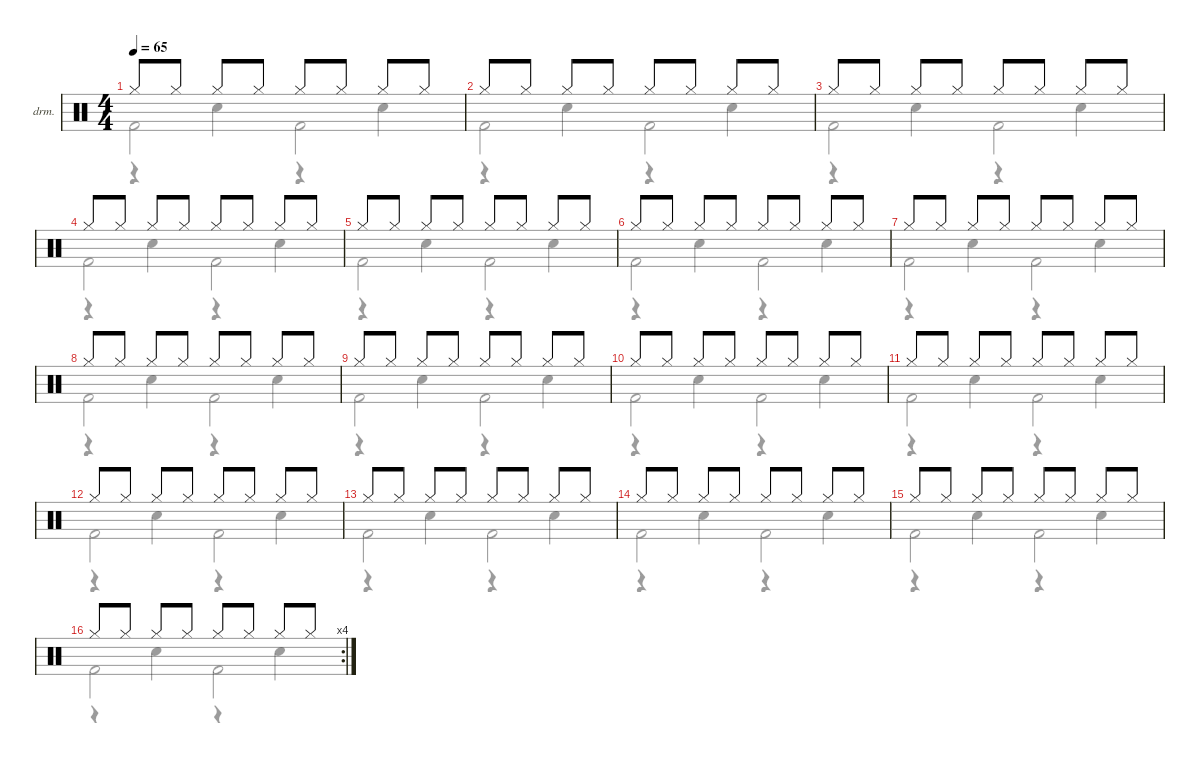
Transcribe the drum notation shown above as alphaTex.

\defaultSystemsLayout 4
\hideDynamics
\bracketExtendMode nobrackets
\firstSystemTrackNameOrientation horizontal
\otherSystemsTrackNameOrientation horizontal
\track ("Drumkit" "drm.") {defaultSystemsLayout 4 instrument percussion}
\staff {score}
\articulation defaults
\voice
\ts (4 4)
\tempo 65
\clef neutral
\scale
1.06363
\ks c "Hi-Hat (closed)".8{dy ff beam Up} "Hi-Hat (closed)".8{beam Up} "Hi-Hat (closed)".8{beam Up} "Hi-Hat (closed)".8{beam Up} "Hi-Hat (closed)".8{beam Up} "Hi-Hat (closed)".8{beam Up} "Hi-Hat (closed)".8{beam Up} "Hi-Hat (closed)".8{beam Up}
|
\scale
0.97879 "Hi-Hat (closed)".8{beam Up} "Hi-Hat (closed)".8{beam Up} "Hi-Hat (closed)".8{beam Up} "Hi-Hat (closed)".8{beam Up} "Hi-Hat (closed)".8{beam Up} "Hi-Hat (closed)".8{beam Up} "Hi-Hat (closed)".8{beam Up} "Hi-Hat (closed)".8{beam Up} |
\scale
0.97879 "Hi-Hat (closed)".8{beam Up} "Hi-Hat (closed)".8{beam Up} "Hi-Hat (closed)".8{beam Up} "Hi-Hat (closed)".8{beam Up} "Hi-Hat (closed)".8{beam Up} "Hi-Hat (closed)".8{beam Up} "Hi-Hat (closed)".8{beam Up} "Hi-Hat (closed)".8{beam Up} |
\scale
0.97879 "Hi-Hat (closed)".8{beam Up} "Hi-Hat (closed)".8{beam Up} "Hi-Hat (closed)".8{beam Up} "Hi-Hat (closed)".8{beam Up} "Hi-Hat (closed)".8{beam Up} "Hi-Hat (closed)".8{beam Up} "Hi-Hat (closed)".8{beam Up} "Hi-Hat (closed)".8{beam Up} |
\scale
1.06363 "Hi-Hat (closed)".8{beam Up} "Hi-Hat (closed)".8{beam Up} "Hi-Hat (closed)".8{beam Up} "Hi-Hat (closed)".8{beam Up} "Hi-Hat (closed)".8{beam Up} "Hi-Hat (closed)".8{beam Up} "Hi-Hat (closed)".8{beam Up} "Hi-Hat (closed)".8{beam Up} |
\scale
0.97879 "Hi-Hat (closed)".8{beam Up} "Hi-Hat (closed)".8{beam Up} "Hi-Hat (closed)".8{beam Up} "Hi-Hat (closed)".8{beam Up} "Hi-Hat (closed)".8{beam Up} "Hi-Hat (closed)".8{beam Up} "Hi-Hat (closed)".8{beam Up} "Hi-Hat (closed)".8{beam Up} |
\scale
0.97879 "Hi-Hat (closed)".8{beam Up} "Hi-Hat (closed)".8{beam Up} "Hi-Hat (closed)".8{beam Up} "Hi-Hat (closed)".8{beam Up} "Hi-Hat (closed)".8{beam Up} "Hi-Hat (closed)".8{beam Up} "Hi-Hat (closed)".8{beam Up} "Hi-Hat (closed)".8{beam Up} |
\scale
0.97879 "Hi-Hat (closed)".8{beam Up} "Hi-Hat (closed)".8{beam Up} "Hi-Hat (closed)".8{beam Up} "Hi-Hat (closed)".8{beam Up} "Hi-Hat (closed)".8{beam Up} "Hi-Hat (closed)".8{beam Up} "Hi-Hat (closed)".8{beam Up} "Hi-Hat (closed)".8{beam Up} |
\scale
1.06363 "Hi-Hat (closed)".8{beam Up} "Hi-Hat (closed)".8{beam Up} "Hi-Hat (closed)".8{beam Up} "Hi-Hat (closed)".8{beam Up} "Hi-Hat (closed)".8{beam Up} "Hi-Hat (closed)".8{beam Up} "Hi-Hat (closed)".8{beam Up} "Hi-Hat (closed)".8{beam Up} |
\scale
0.97879 "Hi-Hat (closed)".8{beam Up} "Hi-Hat (closed)".8{beam Up} "Hi-Hat (closed)".8{beam Up} "Hi-Hat (closed)".8{beam Up} "Hi-Hat (closed)".8{beam Up} "Hi-Hat (closed)".8{beam Up} "Hi-Hat (closed)".8{beam Up} "Hi-Hat (closed)".8{beam Up} |
\scale
0.97879 "Hi-Hat (closed)".8{beam Up} "Hi-Hat (closed)".8{beam Up} "Hi-Hat (closed)".8{beam Up} "Hi-Hat (closed)".8{beam Up} "Hi-Hat (closed)".8{beam Up} "Hi-Hat (closed)".8{beam Up} "Hi-Hat (closed)".8{beam Up} "Hi-Hat (closed)".8{beam Up} |
\scale
0.97879 "Hi-Hat (closed)".8{beam Up} "Hi-Hat (closed)".8{beam Up} "Hi-Hat (closed)".8{beam Up} "Hi-Hat (closed)".8{beam Up} "Hi-Hat (closed)".8{beam Up} "Hi-Hat (closed)".8{beam Up} "Hi-Hat (closed)".8{beam Up} "Hi-Hat (closed)".8{beam Up} |
\scale
1.05211 "Hi-Hat (closed)".8{beam Up} "Hi-Hat (closed)".8{beam Up} "Hi-Hat (closed)".8{beam Up} "Hi-Hat (closed)".8{beam Up} "Hi-Hat (closed)".8{beam Up} "Hi-Hat (closed)".8{beam Up} "Hi-Hat (closed)".8{beam Up} "Hi-Hat (closed)".8{beam Up} |
\scale
0.967263 "Hi-Hat (closed)".8{beam Up} "Hi-Hat (closed)".8{beam Up} "Hi-Hat (closed)".8{beam Up} "Hi-Hat (closed)".8{beam Up} "Hi-Hat (closed)".8{beam Up} "Hi-Hat (closed)".8{beam Up} "Hi-Hat (closed)".8{beam Up} "Hi-Hat (closed)".8{beam Up} |
\scale
0.967263 "Hi-Hat (closed)".8{beam Up} "Hi-Hat (closed)".8{beam Up} "Hi-Hat (closed)".8{beam Up} "Hi-Hat (closed)".8{beam Up} "Hi-Hat (closed)".8{beam Up} "Hi-Hat (closed)".8{beam Up} "Hi-Hat (closed)".8{beam Up} "Hi-Hat (closed)".8{beam Up} |
\rc 4
\scale
1.01337 "Hi-Hat (closed)".8{beam Up} "Hi-Hat (closed)".8{beam Up} "Hi-Hat (closed)".8{beam Up} "Hi-Hat (closed)".8{beam Up} "Hi-Hat (closed)".8{beam Up} "Hi-Hat (closed)".8{beam Up} "Hi-Hat (closed)".8{beam Up} "Hi-Hat (closed)".8{beam Up}
\voice
\clef neutral
\ottava regular
\simile none
\scale
1.06363
\ks c "Kick (hit) 2".2{dy p beam Down} "Kick (hit) 2".2{beam Down}
|
\scale
0.97879 "Kick (hit) 2".2{beam Down} "Kick (hit) 2".2{beam Down} |
\scale
0.97879 "Kick (hit) 2".2{beam Down} "Kick (hit) 2".2{beam Down} |
\scale
0.97879 "Kick (hit) 2".2{beam Down} "Kick (hit) 2".2{beam Down} |
\scale
1.06363 "Kick (hit) 2".2{beam Down} "Kick (hit) 2".2{beam Down} |
\scale
0.97879 "Kick (hit) 2".2{beam Down} "Kick (hit) 2".2{beam Down} |
\scale
0.97879 "Kick (hit) 2".2{beam Down} "Kick (hit) 2".2{beam Down} |
\scale
0.97879 "Kick (hit) 2".2{beam Down} "Kick (hit) 2".2{beam Down} |
\scale
1.06363 "Kick (hit) 2".2{beam Down} "Kick (hit) 2".2{beam Down} |
\scale
0.97879 "Kick (hit) 2".2{beam Down} "Kick (hit) 2".2{beam Down} |
\scale
0.97879 "Kick (hit) 2".2{beam Down} "Kick (hit) 2".2{beam Down} |
\scale
0.97879 "Kick (hit) 2".2{beam Down} "Kick (hit) 2".2{beam Down} |
\scale
1.05211 "Kick (hit) 2".2{beam Down} "Kick (hit) 2".2{beam Down} |
\scale
0.967263 "Kick (hit) 2".2{beam Down} "Kick (hit) 2".2{beam Down} |
\scale
0.967263 "Kick (hit) 2".2{beam Down} "Kick (hit) 2".2{beam Down} |
\scale
1.01337 "Kick (hit) 2".2{beam Down} "Kick (hit) 2".2{beam Down}
\voice
\clef neutral
\ottava regular
\simile none
\scale
1.06363
\ks c
r.4{dy mp beam Down} "Snare (hit) 2".4{beam Down} r.4{beam Down} "Snare (hit) 2".4{beam Down} |
\scale
0.97879 r.4{beam Down} "Snare (hit) 2".4{beam Down} r.4{beam Down} "Snare (hit) 2".4{beam Down} |
\scale
0.97879 r.4{beam Down} "Snare (hit) 2".4{beam Down} r.4{beam Down} "Snare (hit) 2".4{beam Down} |
\scale
0.97879 r.4{beam Down} "Snare (hit) 2".4{beam Down} r.4{beam Down} "Snare (hit) 2".4{beam Down} |
\scale
1.06363 r.4{beam Down} "Snare (hit) 2".4{beam Down} r.4{beam Down} "Snare (hit) 2".4{beam Down} |
\scale
0.97879 r.4{beam Down} "Snare (hit) 2".4{beam Down} r.4{beam Down} "Snare (hit) 2".4{beam Down} |
\scale
0.97879 r.4{beam Down} "Snare (hit) 2".4{beam Down} r.4{beam Down} "Snare (hit) 2".4{beam Down} |
\scale
0.97879 r.4{beam Down} "Snare (hit) 2".4{beam Down} r.4{beam Down} "Snare (hit) 2".4{beam Down} |
\scale
1.06363 r.4{beam Down} "Snare (hit) 2".4{beam Down} r.4{beam Down} "Snare (hit) 2".4{beam Down} |
\scale
0.97879 r.4{beam Down} "Snare (hit) 2".4{beam Down} r.4{beam Down} "Snare (hit) 2".4{beam Down} |
\scale
0.97879 r.4{beam Down} "Snare (hit) 2".4{beam Down} r.4{beam Down} "Snare (hit) 2".4{beam Down} |
\scale
0.97879 r.4{beam Down} "Snare (hit) 2".4{beam Down} r.4{beam Down} "Snare (hit) 2".4{beam Down} |
\scale
1.05211 r.4{beam Down} "Snare (hit) 2".4{beam Down} r.4{beam Down} "Snare (hit) 2".4{beam Down} |
\scale
0.967263 r.4{beam Down} "Snare (hit) 2".4{beam Down} r.4{beam Down} "Snare (hit) 2".4{beam Down} |
\scale
0.967263 r.4{beam Down} "Snare (hit) 2".4{beam Down} r.4{beam Down} "Snare (hit) 2".4{beam Down} |
\scale
1.01337 r.4{beam Down} "Snare (hit) 2".4{beam Down} r.4{beam Down} "Snare (hit) 2".4{beam Down}
